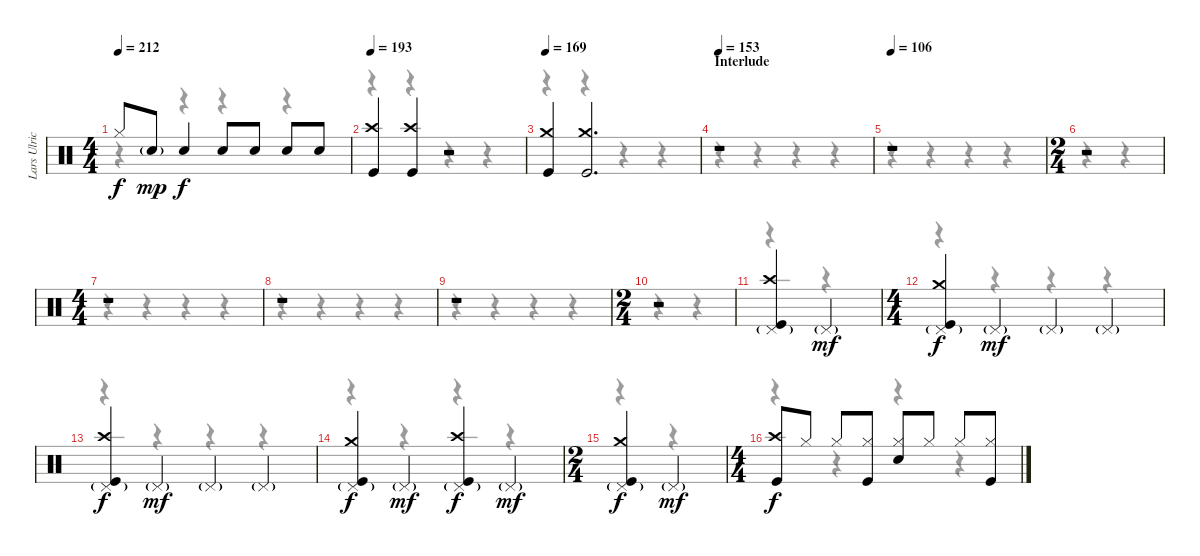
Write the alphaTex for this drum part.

\track ("Lars Ulrich" "Lars Ulric") {instrument percussion}
\staff {score}
\articulation defaults
\voice
\ts (4 4)
\tempo 212
\clef neutral
\ks c "Hi-Hat (closed)".8{dy f} "Snare (hit) 2"{g}.8{dy mp} "Snare (hit) 2".4{dy f} "Snare (hit) 2".8 "Snare (hit) 2".8 "Snare (hit) 2".8 "Snare (hit) 2".8
|
\tempo 193
("Crash high (hit)" "Kick (hit)").4 ("Crash high (hit)" "Kick (hit)").4 r.2 |
\tempo 169
("Crash medium (hit)" "Kick (hit)").4 ("Crash medium (hit)" "Kick (hit)").2{d} |
\section ("" "Interlude")
\tempo 153
r.1 |
\tempo 106
r.1 |
\ts (2 4)
r.2 |
\ts (4 4)
r.1 |
r.1 |
r.1 |
\ts (2 4)
r.2 |
("Crash high (hit)" "Pedal Hi-Hat (hit)"{g} "Kick (hit)").4 "Pedal Hi-Hat (hit)"{g}.4{dy mf} |
\ts (4 4)
("Crash medium (hit)" "Pedal Hi-Hat (hit)"{g} "Kick (hit)").4{dy f} "Pedal Hi-Hat (hit)"{g}.4{dy mf} "Pedal Hi-Hat (hit)"{g}.4 "Pedal Hi-Hat (hit)"{g}.4 |
("Crash high (hit)" "Pedal Hi-Hat (hit)"{g} "Kick (hit)").4{dy f} "Pedal Hi-Hat (hit)"{g}.4{dy mf} "Pedal Hi-Hat (hit)"{g}.4 "Pedal Hi-Hat (hit)"{g}.4 |
("Crash medium (hit)" "Pedal Hi-Hat (hit)"{g} "Kick (hit)").4{dy f} "Pedal Hi-Hat (hit)"{g}.4{dy mf} ("Crash high (hit)" "Pedal Hi-Hat (hit)"{g} "Kick (hit)").4{dy f} "Pedal Hi-Hat (hit)"{g}.4{dy mf} |
\ts (2 4)
("Crash medium (hit)" "Pedal Hi-Hat (hit)"{g} "Kick (hit)").4{dy f} "Pedal Hi-Hat (hit)"{g}.4{dy mf} |
\ts (4 4)
("Crash high (hit)" "Kick (hit)").8{dy f} "Hi-Hat (closed)".8 "Hi-Hat (closed)".8 ("Hi-Hat (closed)" "Kick (hit)").8 ("Hi-Hat (closed)" "Snare (hit) 2").8 "Hi-Hat (closed)".8 "Hi-Hat (closed)".8 ("Hi-Hat (closed)" "Kick (hit)").8
\voice
\clef neutral
\ottava regular
\simile none
\ks c
r.4{dy f} r.4 r.4 r.4 |
r.4 r.4 r.4 r.4 |
r.4 r.4 r.4 r.4 |
r.4 r.4 r.4 r.4 |
r.4 r.4 r.4 r.4 |
r.4 r.4 |
r.4 r.4 r.4 r.4 |
r.4 r.4 r.4 r.4 |
r.4 r.4 r.4 r.4 |
r.4 r.4 |
r.4 r.4 |
r.4 r.4 r.4 r.4 |
r.4 r.4 r.4 r.4 |
r.4 r.4 r.4 r.4 |
r.4 r.4 |
r.4 r.4 r.4 r.4
